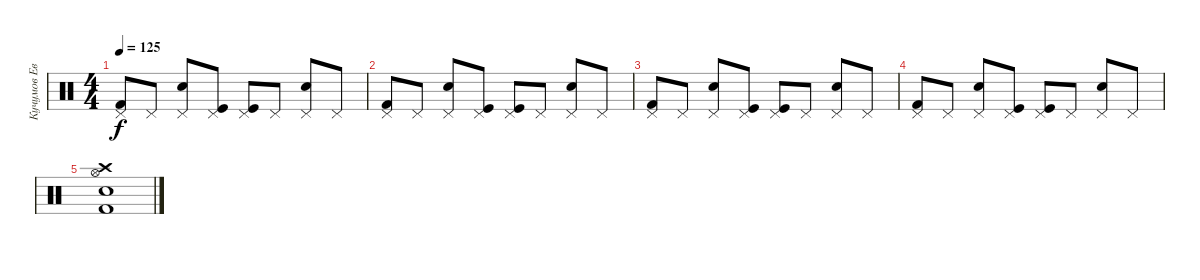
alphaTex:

\track ("Кучумов Евгений" "Кучумов Ев") {instrument percussion}
\staff {score}
\articulation defaults
\ts (4 4)
\tempo 125
\clef neutral
\ks c
("Kick (hit) 2" "Pedal Hi-Hat (hit)").8{dy f} "Pedal Hi-Hat (hit)".8 ("Electric Snare (hit)" "Pedal Hi-Hat (hit)").8 ("Kick (hit)" "Pedal Hi-Hat (hit)").8 ("Kick (hit)" "Pedal Hi-Hat (hit)").8 "Pedal Hi-Hat (hit)".8 ("Electric Snare (hit)" "Pedal Hi-Hat (hit)").8 "Pedal Hi-Hat (hit)".8 |
("Kick (hit) 2" "Pedal Hi-Hat (hit)").8 "Pedal Hi-Hat (hit)".8 ("Electric Snare (hit)" "Pedal Hi-Hat (hit)").8 ("Kick (hit)" "Pedal Hi-Hat (hit)").8 ("Kick (hit)" "Pedal Hi-Hat (hit)").8 "Pedal Hi-Hat (hit)".8 ("Electric Snare (hit)" "Pedal Hi-Hat (hit)").8 "Pedal Hi-Hat (hit)".8 |
("Kick (hit) 2" "Pedal Hi-Hat (hit)").8 "Pedal Hi-Hat (hit)".8 ("Electric Snare (hit)" "Pedal Hi-Hat (hit)").8 ("Kick (hit)" "Pedal Hi-Hat (hit)").8 ("Kick (hit)" "Pedal Hi-Hat (hit)").8 "Pedal Hi-Hat (hit)".8 ("Electric Snare (hit)" "Pedal Hi-Hat (hit)").8 "Pedal Hi-Hat (hit)".8 |
("Kick (hit) 2" "Pedal Hi-Hat (hit)").8 "Pedal Hi-Hat (hit)".8 ("Electric Snare (hit)" "Pedal Hi-Hat (hit)").8 ("Kick (hit)" "Pedal Hi-Hat (hit)").8 ("Kick (hit)" "Pedal Hi-Hat (hit)").8 "Pedal Hi-Hat (hit)".8 ("Electric Snare (hit)" "Pedal Hi-Hat (hit)").8 "Pedal Hi-Hat (hit)".8 |
("Hi-Hat (open)" "Kick (hit) 2" "Crash high (hit)" "Electric Snare (hit)").1
